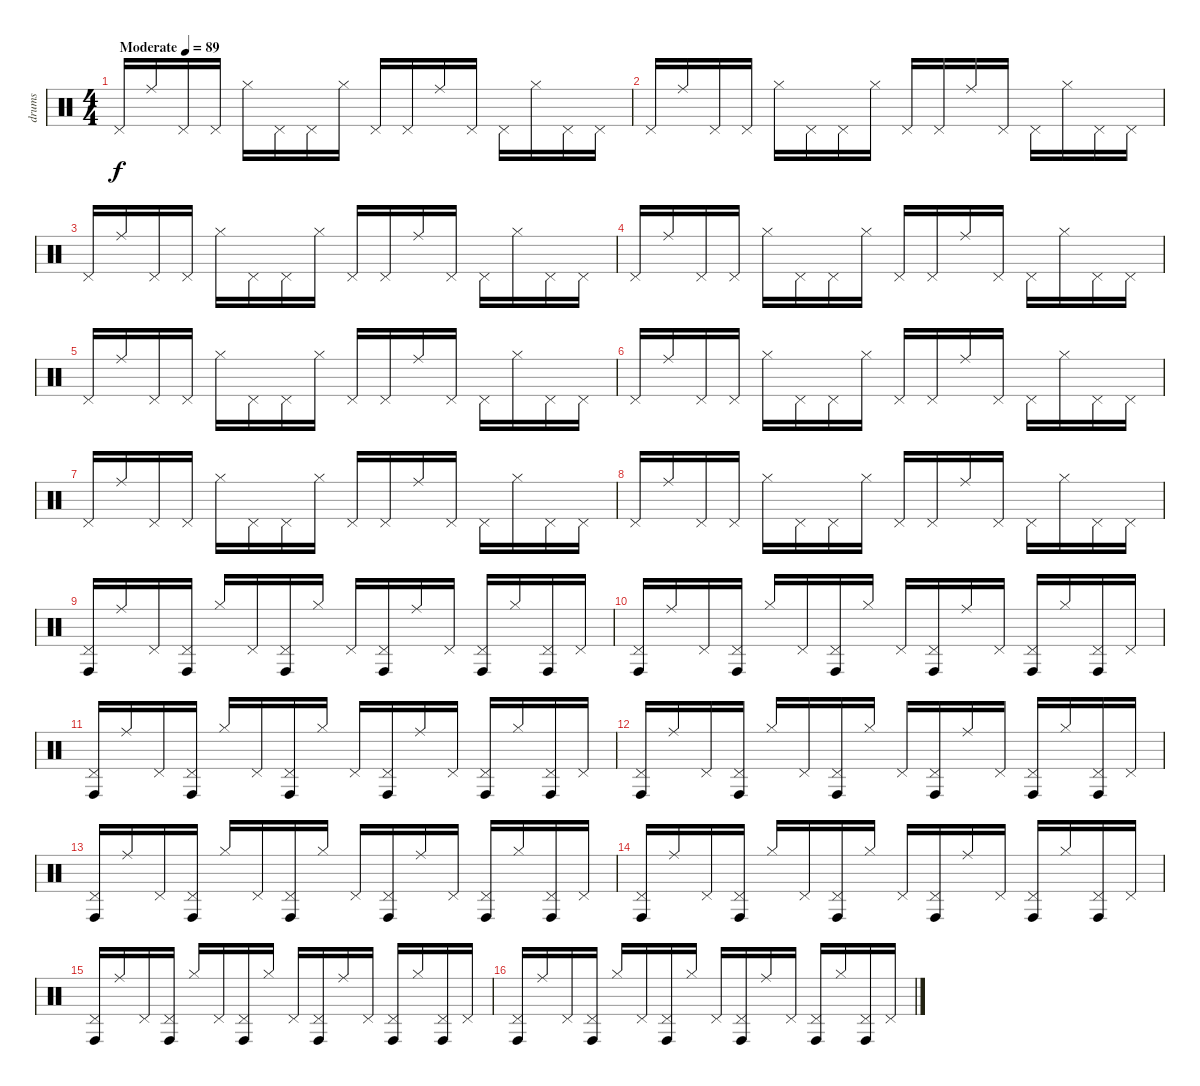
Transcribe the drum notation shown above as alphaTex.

\track ("drums" "drums") {instrument percussion}
\staff {score}
\articulation defaults
\ts (4 4)
\tempo (89 "Moderate")
\clef neutral
\ks c "Pedal Hi-Hat (hit)".16{dy f} "Ride (middle)".16 "Pedal Hi-Hat (hit)".16 "Pedal Hi-Hat (hit)".16 "Hi-Hat (closed)".16 "Pedal Hi-Hat (hit)".16 "Pedal Hi-Hat (hit)".16 "Hi-Hat (closed)".16 "Pedal Hi-Hat (hit)".16 "Pedal Hi-Hat (hit)".16 "Ride (middle)".16 "Pedal Hi-Hat (hit)".16 "Pedal Hi-Hat (hit)".16 "Hi-Hat (closed)".16 "Pedal Hi-Hat (hit)".16 "Pedal Hi-Hat (hit)".16
|
"Pedal Hi-Hat (hit)".16 "Ride (middle)".16 "Pedal Hi-Hat (hit)".16 "Pedal Hi-Hat (hit)".16 "Hi-Hat (closed)".16 "Pedal Hi-Hat (hit)".16 "Pedal Hi-Hat (hit)".16 "Hi-Hat (closed)".16 "Pedal Hi-Hat (hit)".16 "Pedal Hi-Hat (hit)".16 "Ride (middle)".16 "Pedal Hi-Hat (hit)".16 "Pedal Hi-Hat (hit)".16 "Hi-Hat (closed)".16 "Pedal Hi-Hat (hit)".16 "Pedal Hi-Hat (hit)".16 |
"Pedal Hi-Hat (hit)".16 "Ride (middle)".16 "Pedal Hi-Hat (hit)".16 "Pedal Hi-Hat (hit)".16 "Hi-Hat (closed)".16 "Pedal Hi-Hat (hit)".16 "Pedal Hi-Hat (hit)".16 "Hi-Hat (closed)".16 "Pedal Hi-Hat (hit)".16 "Pedal Hi-Hat (hit)".16 "Ride (middle)".16 "Pedal Hi-Hat (hit)".16 "Pedal Hi-Hat (hit)".16 "Hi-Hat (closed)".16 "Pedal Hi-Hat (hit)".16 "Pedal Hi-Hat (hit)".16 |
"Pedal Hi-Hat (hit)".16 "Ride (middle)".16 "Pedal Hi-Hat (hit)".16 "Pedal Hi-Hat (hit)".16 "Hi-Hat (closed)".16 "Pedal Hi-Hat (hit)".16 "Pedal Hi-Hat (hit)".16 "Hi-Hat (closed)".16 "Pedal Hi-Hat (hit)".16 "Pedal Hi-Hat (hit)".16 "Ride (middle)".16 "Pedal Hi-Hat (hit)".16 "Pedal Hi-Hat (hit)".16 "Hi-Hat (closed)".16 "Pedal Hi-Hat (hit)".16 "Pedal Hi-Hat (hit)".16 |
"Pedal Hi-Hat (hit)".16 "Ride (middle)".16 "Pedal Hi-Hat (hit)".16 "Pedal Hi-Hat (hit)".16 "Hi-Hat (closed)".16 "Pedal Hi-Hat (hit)".16 "Pedal Hi-Hat (hit)".16 "Hi-Hat (closed)".16 "Pedal Hi-Hat (hit)".16 "Pedal Hi-Hat (hit)".16 "Ride (middle)".16 "Pedal Hi-Hat (hit)".16 "Pedal Hi-Hat (hit)".16 "Hi-Hat (closed)".16 "Pedal Hi-Hat (hit)".16 "Pedal Hi-Hat (hit)".16 |
"Pedal Hi-Hat (hit)".16 "Ride (middle)".16 "Pedal Hi-Hat (hit)".16 "Pedal Hi-Hat (hit)".16 "Hi-Hat (closed)".16 "Pedal Hi-Hat (hit)".16 "Pedal Hi-Hat (hit)".16 "Hi-Hat (closed)".16 "Pedal Hi-Hat (hit)".16 "Pedal Hi-Hat (hit)".16 "Ride (middle)".16 "Pedal Hi-Hat (hit)".16 "Pedal Hi-Hat (hit)".16 "Hi-Hat (closed)".16 "Pedal Hi-Hat (hit)".16 "Pedal Hi-Hat (hit)".16 |
"Pedal Hi-Hat (hit)".16 "Ride (middle)".16 "Pedal Hi-Hat (hit)".16 "Pedal Hi-Hat (hit)".16 "Hi-Hat (closed)".16 "Pedal Hi-Hat (hit)".16 "Pedal Hi-Hat (hit)".16 "Hi-Hat (closed)".16 "Pedal Hi-Hat (hit)".16 "Pedal Hi-Hat (hit)".16 "Ride (middle)".16 "Pedal Hi-Hat (hit)".16 "Pedal Hi-Hat (hit)".16 "Hi-Hat (closed)".16 "Pedal Hi-Hat (hit)".16 "Pedal Hi-Hat (hit)".16 |
"Pedal Hi-Hat (hit)".16 "Ride (middle)".16 "Pedal Hi-Hat (hit)".16 "Pedal Hi-Hat (hit)".16 "Hi-Hat (closed)".16 "Pedal Hi-Hat (hit)".16 "Pedal Hi-Hat (hit)".16 "Hi-Hat (closed)".16 "Pedal Hi-Hat (hit)".16 "Pedal Hi-Hat (hit)".16 "Ride (middle)".16 "Pedal Hi-Hat (hit)".16 "Pedal Hi-Hat (hit)".16 "Hi-Hat (closed)".16 "Pedal Hi-Hat (hit)".16 "Pedal Hi-Hat (hit)".16 |
("Pedal Hi-Hat (hit)" "Conga high (hit)").16 "Ride (middle)".16 "Pedal Hi-Hat (hit)".16 ("Pedal Hi-Hat (hit)" "Conga high (hit)").16 "Hi-Hat (closed)".16 "Pedal Hi-Hat (hit)".16 ("Conga high (hit)" "Pedal Hi-Hat (hit)").16 "Hi-Hat (closed)".16 "Pedal Hi-Hat (hit)".16 ("Pedal Hi-Hat (hit)" "Conga high (hit)").16 "Ride (middle)".16 "Pedal Hi-Hat (hit)".16 ("Pedal Hi-Hat (hit)" "Conga high (hit)").16 "Hi-Hat (closed)".16 ("Pedal Hi-Hat (hit)" "Conga high (hit)").16 "Pedal Hi-Hat (hit)".16 |
("Pedal Hi-Hat (hit)" "Conga high (hit)").16 "Ride (middle)".16 "Pedal Hi-Hat (hit)".16 ("Pedal Hi-Hat (hit)" "Conga high (hit)").16 "Hi-Hat (closed)".16 "Pedal Hi-Hat (hit)".16 ("Pedal Hi-Hat (hit)" "Conga high (hit)").16 "Hi-Hat (closed)".16 "Pedal Hi-Hat (hit)".16 ("Pedal Hi-Hat (hit)" "Conga high (hit)").16 "Ride (middle)".16 "Pedal Hi-Hat (hit)".16 ("Pedal Hi-Hat (hit)" "Conga high (hit)").16 "Hi-Hat (closed)".16 ("Pedal Hi-Hat (hit)" "Conga high (hit)").16 "Pedal Hi-Hat (hit)".16 |
("Pedal Hi-Hat (hit)" "Conga high (hit)").16 "Ride (middle)".16 "Pedal Hi-Hat (hit)".16 ("Pedal Hi-Hat (hit)" "Conga high (hit)").16 "Hi-Hat (closed)".16 "Pedal Hi-Hat (hit)".16 ("Pedal Hi-Hat (hit)" "Conga high (hit)").16 "Hi-Hat (closed)".16 "Pedal Hi-Hat (hit)".16 ("Pedal Hi-Hat (hit)" "Conga high (hit)").16 "Ride (middle)".16 "Pedal Hi-Hat (hit)".16 ("Pedal Hi-Hat (hit)" "Conga high (hit)").16 "Hi-Hat (closed)".16 ("Pedal Hi-Hat (hit)" "Conga high (hit)").16 "Pedal Hi-Hat (hit)".16 |
("Pedal Hi-Hat (hit)" "Conga high (hit)").16 "Ride (middle)".16 "Pedal Hi-Hat (hit)".16 ("Pedal Hi-Hat (hit)" "Conga high (hit)").16 "Hi-Hat (closed)".16 "Pedal Hi-Hat (hit)".16 ("Pedal Hi-Hat (hit)" "Conga high (hit)").16 "Hi-Hat (closed)".16 "Pedal Hi-Hat (hit)".16 ("Pedal Hi-Hat (hit)" "Conga high (hit)").16 "Ride (middle)".16 "Pedal Hi-Hat (hit)".16 ("Pedal Hi-Hat (hit)" "Conga high (hit)").16 "Hi-Hat (closed)".16 ("Pedal Hi-Hat (hit)" "Conga high (hit)").16 "Pedal Hi-Hat (hit)".16 |
("Pedal Hi-Hat (hit)" "Conga high (hit)").16 "Ride (middle)".16 "Pedal Hi-Hat (hit)".16 ("Pedal Hi-Hat (hit)" "Conga high (hit)").16 "Hi-Hat (closed)".16 "Pedal Hi-Hat (hit)".16 ("Conga high (hit)" "Pedal Hi-Hat (hit)").16 "Hi-Hat (closed)".16 "Pedal Hi-Hat (hit)".16 ("Pedal Hi-Hat (hit)" "Conga high (hit)").16 "Ride (middle)".16 "Pedal Hi-Hat (hit)".16 ("Pedal Hi-Hat (hit)" "Conga high (hit)").16 "Hi-Hat (closed)".16 ("Pedal Hi-Hat (hit)" "Conga high (hit)").16 "Pedal Hi-Hat (hit)".16 |
("Pedal Hi-Hat (hit)" "Conga high (hit)").16 "Ride (middle)".16 "Pedal Hi-Hat (hit)".16 ("Pedal Hi-Hat (hit)" "Conga high (hit)").16 "Hi-Hat (closed)".16 "Pedal Hi-Hat (hit)".16 ("Pedal Hi-Hat (hit)" "Conga high (hit)").16 "Hi-Hat (closed)".16 "Pedal Hi-Hat (hit)".16 ("Pedal Hi-Hat (hit)" "Conga high (hit)").16 "Ride (middle)".16 "Pedal Hi-Hat (hit)".16 ("Pedal Hi-Hat (hit)" "Conga high (hit)").16 "Hi-Hat (closed)".16 ("Pedal Hi-Hat (hit)" "Conga high (hit)").16 "Pedal Hi-Hat (hit)".16 |
("Pedal Hi-Hat (hit)" "Conga high (hit)").16 "Ride (middle)".16 "Pedal Hi-Hat (hit)".16 ("Pedal Hi-Hat (hit)" "Conga high (hit)").16 "Hi-Hat (closed)".16 "Pedal Hi-Hat (hit)".16 ("Pedal Hi-Hat (hit)" "Conga high (hit)").16 "Hi-Hat (closed)".16 "Pedal Hi-Hat (hit)".16 ("Pedal Hi-Hat (hit)" "Conga high (hit)").16 "Ride (middle)".16 "Pedal Hi-Hat (hit)".16 ("Pedal Hi-Hat (hit)" "Conga high (hit)").16 "Hi-Hat (closed)".16 ("Pedal Hi-Hat (hit)" "Conga high (hit)").16 "Pedal Hi-Hat (hit)".16 |
("Pedal Hi-Hat (hit)" "Conga high (hit)").16 "Ride (middle)".16 "Pedal Hi-Hat (hit)".16 ("Pedal Hi-Hat (hit)" "Conga high (hit)").16 "Hi-Hat (closed)".16 "Pedal Hi-Hat (hit)".16 ("Pedal Hi-Hat (hit)" "Conga high (hit)").16 "Hi-Hat (closed)".16 "Pedal Hi-Hat (hit)".16 ("Pedal Hi-Hat (hit)" "Conga high (hit)").16 "Ride (middle)".16 "Pedal Hi-Hat (hit)".16 ("Pedal Hi-Hat (hit)" "Conga high (hit)").16 "Hi-Hat (closed)".16 ("Pedal Hi-Hat (hit)" "Conga high (hit)").16 "Pedal Hi-Hat (hit)".16
